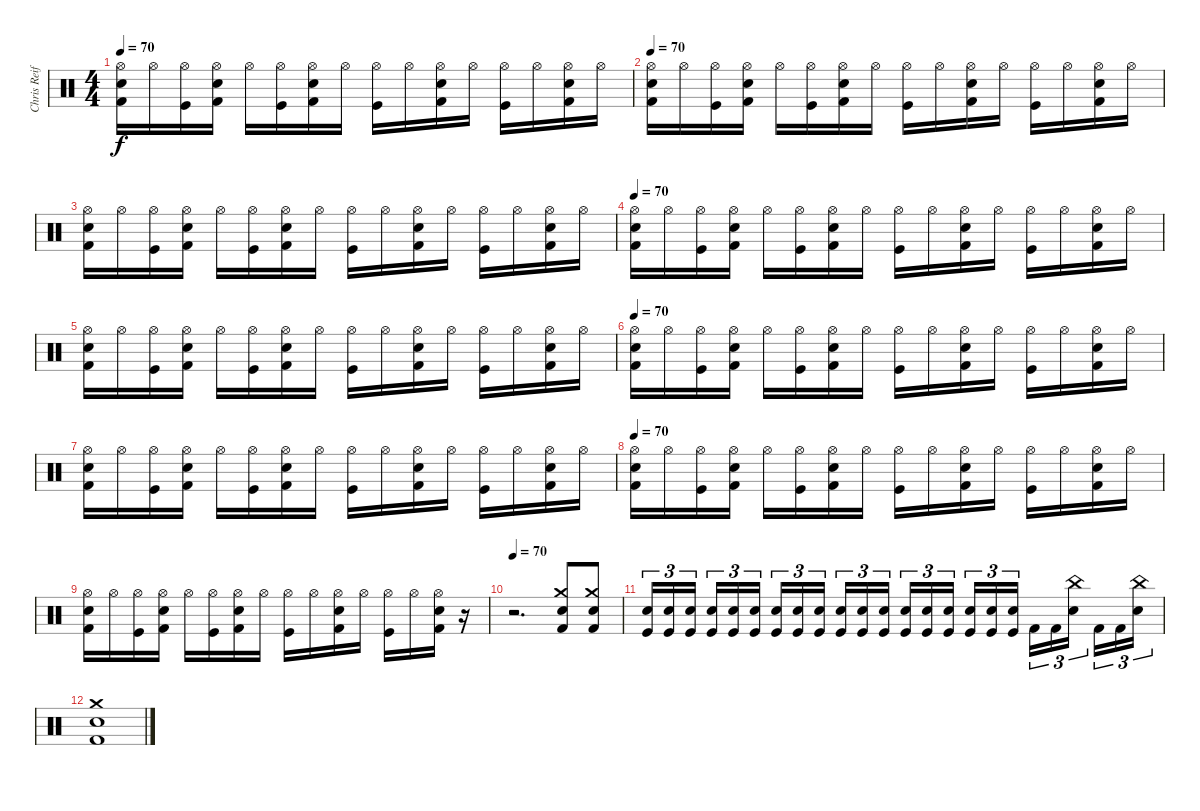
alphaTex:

\track ("Chris Reifert" "Chris Reif") {instrument percussion}
\staff {score}
\articulation defaults
\ts (4 4)
\tempo 70
\clef neutral
\ks c
("Hi-Hat (open)" "Snare (hit) 2" "Kick (hit) 2").16{dy f} "Hi-Hat (open)".16 ("Hi-Hat (open)" "Kick (hit)").16 ("Hi-Hat (open)" "Snare (hit) 2" "Kick (hit) 2").16 "Hi-Hat (open)".16 ("Hi-Hat (open)" "Kick (hit)").16 ("Hi-Hat (open)" "Snare (hit) 2" "Kick (hit) 2").16 "Hi-Hat (open)".16 ("Hi-Hat (open)" "Kick (hit)").16 "Hi-Hat (open)".16 ("Hi-Hat (open)" "Snare (hit) 2" "Kick (hit) 2").16 "Hi-Hat (open)".16 ("Hi-Hat (open)" "Kick (hit)").16 "Hi-Hat (open)".16 ("Hi-Hat (open)" "Snare (hit) 2" "Kick (hit) 2").16 "Hi-Hat (open)".16 |
\tempo 70
("Hi-Hat (open)" "Snare (hit) 2" "Kick (hit) 2").16 "Hi-Hat (open)".16 ("Hi-Hat (open)" "Kick (hit)").16 ("Hi-Hat (open)" "Snare (hit) 2" "Kick (hit) 2").16 "Hi-Hat (open)".16 ("Hi-Hat (open)" "Kick (hit)").16 ("Hi-Hat (open)" "Snare (hit) 2" "Kick (hit) 2").16 "Hi-Hat (open)".16 ("Hi-Hat (open)" "Kick (hit)").16 "Hi-Hat (open)".16 ("Hi-Hat (open)" "Snare (hit) 2" "Kick (hit) 2").16 "Hi-Hat (open)".16 ("Hi-Hat (open)" "Kick (hit)").16 "Hi-Hat (open)".16 ("Hi-Hat (open)" "Snare (hit) 2" "Kick (hit) 2").16 "Hi-Hat (open)".16 |
("Hi-Hat (open)" "Snare (hit) 2" "Kick (hit) 2").16 "Hi-Hat (open)".16 ("Hi-Hat (open)" "Kick (hit)").16 ("Hi-Hat (open)" "Snare (hit) 2" "Kick (hit) 2").16 "Hi-Hat (open)".16 ("Hi-Hat (open)" "Kick (hit)").16 ("Hi-Hat (open)" "Snare (hit) 2" "Kick (hit) 2").16 "Hi-Hat (open)".16 ("Hi-Hat (open)" "Kick (hit)").16 "Hi-Hat (open)".16 ("Hi-Hat (open)" "Snare (hit) 2" "Kick (hit) 2").16 "Hi-Hat (open)".16 ("Hi-Hat (open)" "Kick (hit)").16 "Hi-Hat (open)".16 ("Hi-Hat (open)" "Snare (hit) 2" "Kick (hit) 2").16 "Hi-Hat (open)".16 |
\tempo 70
("Hi-Hat (open)" "Snare (hit) 2" "Kick (hit) 2").16 "Hi-Hat (open)".16 ("Hi-Hat (open)" "Kick (hit)").16 ("Hi-Hat (open)" "Snare (hit) 2" "Kick (hit) 2").16 "Hi-Hat (open)".16 ("Hi-Hat (open)" "Kick (hit)").16 ("Hi-Hat (open)" "Snare (hit) 2" "Kick (hit) 2").16 "Hi-Hat (open)".16 ("Hi-Hat (open)" "Kick (hit)").16 "Hi-Hat (open)".16 ("Hi-Hat (open)" "Snare (hit) 2" "Kick (hit) 2").16 "Hi-Hat (open)".16 ("Hi-Hat (open)" "Kick (hit)").16 "Hi-Hat (open)".16 ("Hi-Hat (open)" "Snare (hit) 2" "Kick (hit) 2").16 "Hi-Hat (open)".16 |
("Hi-Hat (open)" "Snare (hit) 2" "Kick (hit) 2").16 "Hi-Hat (open)".16 ("Hi-Hat (open)" "Kick (hit)").16 ("Hi-Hat (open)" "Snare (hit) 2" "Kick (hit) 2").16 "Hi-Hat (open)".16 ("Hi-Hat (open)" "Kick (hit)").16 ("Hi-Hat (open)" "Snare (hit) 2" "Kick (hit) 2").16 "Hi-Hat (open)".16 ("Hi-Hat (open)" "Kick (hit)").16 "Hi-Hat (open)".16 ("Hi-Hat (open)" "Snare (hit) 2" "Kick (hit) 2").16 "Hi-Hat (open)".16 ("Hi-Hat (open)" "Kick (hit)").16 "Hi-Hat (open)".16 ("Hi-Hat (open)" "Snare (hit) 2" "Kick (hit) 2").16 "Hi-Hat (open)".16 |
\tempo 70
("Hi-Hat (open)" "Snare (hit) 2" "Kick (hit) 2").16 "Hi-Hat (open)".16 ("Hi-Hat (open)" "Kick (hit)").16 ("Hi-Hat (open)" "Snare (hit) 2" "Kick (hit) 2").16 "Hi-Hat (open)".16 ("Hi-Hat (open)" "Kick (hit)").16 ("Hi-Hat (open)" "Snare (hit) 2" "Kick (hit) 2").16 "Hi-Hat (open)".16 ("Hi-Hat (open)" "Kick (hit)").16 "Hi-Hat (open)".16 ("Hi-Hat (open)" "Snare (hit) 2" "Kick (hit) 2").16 "Hi-Hat (open)".16 ("Hi-Hat (open)" "Kick (hit)").16 "Hi-Hat (open)".16 ("Hi-Hat (open)" "Snare (hit) 2" "Kick (hit) 2").16 "Hi-Hat (open)".16 |
("Hi-Hat (open)" "Snare (hit) 2" "Kick (hit) 2").16 "Hi-Hat (open)".16 ("Hi-Hat (open)" "Kick (hit)").16 ("Hi-Hat (open)" "Snare (hit) 2" "Kick (hit) 2").16 "Hi-Hat (open)".16 ("Hi-Hat (open)" "Kick (hit)").16 ("Hi-Hat (open)" "Snare (hit) 2" "Kick (hit) 2").16 "Hi-Hat (open)".16 ("Hi-Hat (open)" "Kick (hit)").16 "Hi-Hat (open)".16 ("Hi-Hat (open)" "Snare (hit) 2" "Kick (hit) 2").16 "Hi-Hat (open)".16 ("Hi-Hat (open)" "Kick (hit)").16 "Hi-Hat (open)".16 ("Hi-Hat (open)" "Snare (hit) 2" "Kick (hit) 2").16 "Hi-Hat (open)".16 |
\tempo 70
("Hi-Hat (open)" "Snare (hit) 2" "Kick (hit) 2").16 "Hi-Hat (open)".16 ("Hi-Hat (open)" "Kick (hit)").16 ("Hi-Hat (open)" "Snare (hit) 2" "Kick (hit) 2").16 "Hi-Hat (open)".16 ("Hi-Hat (open)" "Kick (hit)").16 ("Hi-Hat (open)" "Snare (hit) 2" "Kick (hit) 2").16 "Hi-Hat (open)".16 ("Hi-Hat (open)" "Kick (hit)").16 "Hi-Hat (open)".16 ("Hi-Hat (open)" "Snare (hit) 2" "Kick (hit) 2").16 "Hi-Hat (open)".16 ("Hi-Hat (open)" "Kick (hit)").16 "Hi-Hat (open)".16 ("Hi-Hat (open)" "Snare (hit) 2" "Kick (hit) 2").16 "Hi-Hat (open)".16 |
("Hi-Hat (open)" "Snare (hit) 2" "Kick (hit) 2").16 "Hi-Hat (open)".16 ("Hi-Hat (open)" "Kick (hit)").16 ("Hi-Hat (open)" "Snare (hit) 2" "Kick (hit) 2").16 "Hi-Hat (open)".16 ("Hi-Hat (open)" "Kick (hit)").16 ("Hi-Hat (open)" "Snare (hit) 2" "Kick (hit) 2").16 "Hi-Hat (open)".16 ("Hi-Hat (open)" "Kick (hit)").16 "Hi-Hat (open)".16 ("Hi-Hat (open)" "Snare (hit) 2" "Kick (hit) 2").16 "Hi-Hat (open)".16 ("Hi-Hat (open)" "Kick (hit)").16 "Hi-Hat (open)".16 ("Hi-Hat (open)" "Snare (hit) 2" "Kick (hit) 2").16 r.16 |
\tempo 70
r.2{d} ("Crash medium (hit)" "Electric Snare (hit)" "Kick (hit) 2").8 ("Crash medium (hit)" "Electric Snare (hit)" "Kick (hit) 2").8 |
("Snare (hit) 2" "Kick (hit)").16{tu (3 2)} ("Snare (hit) 2" "Kick (hit)").16{tu (3 2)} ("Snare (hit) 2" "Kick (hit)").16{tu (3 2) beam splitsecondary} ("Snare (hit) 2" "Kick (hit)").16{tu (3 2)} ("Snare (hit) 2" "Kick (hit)").16{tu (3 2)} ("Snare (hit) 2" "Kick (hit)").16{tu (3 2)} ("Snare (hit) 2" "Kick (hit)").16{tu (3 2)} ("Snare (hit) 2" "Kick (hit)").16{tu (3 2)} ("Snare (hit) 2" "Kick (hit)").16{tu (3 2) beam splitsecondary} ("Snare (hit) 2" "Kick (hit)").16{tu (3 2)} ("Snare (hit) 2" "Kick (hit)").16{tu (3 2)} ("Snare (hit) 2" "Kick (hit)").16{tu (3 2)} ("Snare (hit) 2" "Kick (hit)").16{tu (3 2)} ("Snare (hit) 2" "Kick (hit)").16{tu (3 2)} ("Snare (hit) 2" "Kick (hit)").16{tu (3 2) beam splitsecondary} ("Snare (hit) 2" "Kick (hit)").16{tu (3 2)} ("Snare (hit) 2" "Kick (hit)").16{tu (3 2)} ("Snare (hit) 2" "Kick (hit)").16{tu (3 2)} "Kick (hit) 2".16{tu (3 2)} "Kick (hit) 2".16{tu (3 2)} ("China (hit)" "Snare (hit) 2").16{tu (3 2) beam splitsecondary} "Kick (hit) 2".16{tu (3 2)} "Kick (hit) 2".16{tu (3 2)} ("China (hit)" "Snare (hit) 2").16{tu (3 2)} |
("Crash medium (hit)" "Snare (hit) 2" "Kick (hit) 2").1
